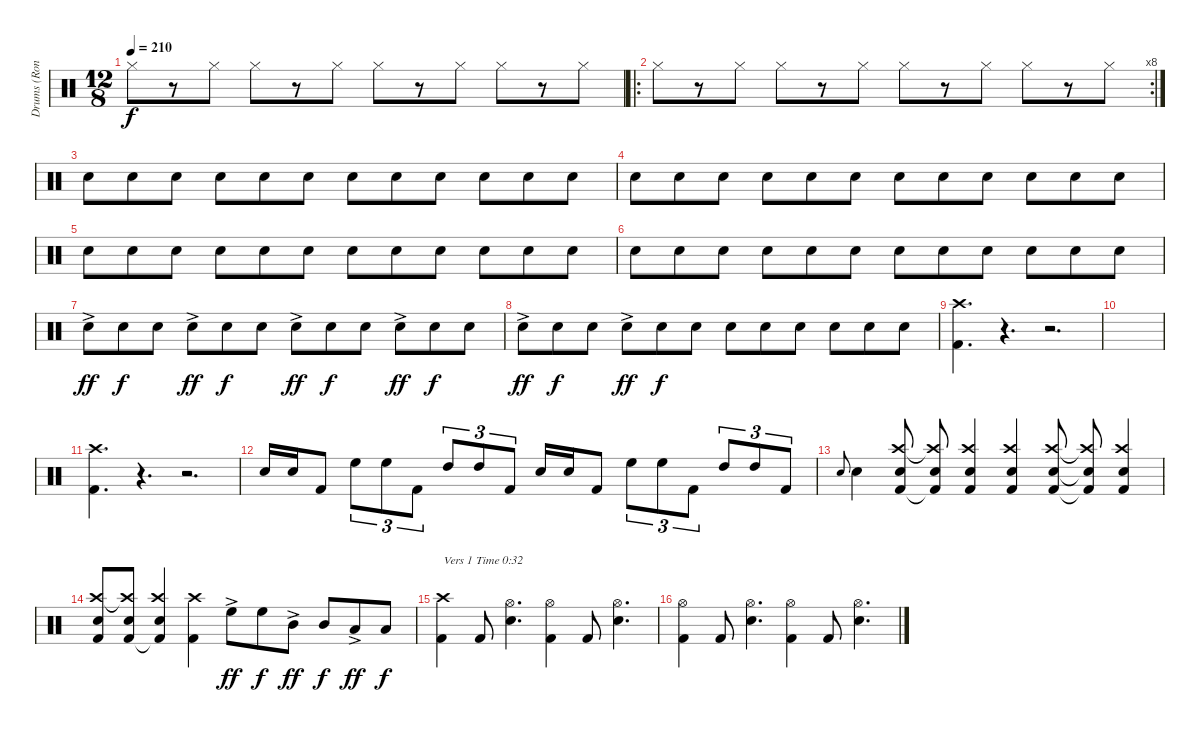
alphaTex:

\track ("Drums (Ronny)" "Drums (Ron") {instrument percussion}
\staff {score}
\articulation defaults
\ts (12 8)
\tempo 210
\clef neutral
\ks c "Hi-Hat (closed)".8{dy f}
r.8 "Hi-Hat (closed)".8 "Hi-Hat (closed)".8 r.8 "Hi-Hat (closed)".8 "Hi-Hat (closed)".8 r.8 "Hi-Hat (closed)".8 "Hi-Hat (closed)".8 r.8 "Hi-Hat (closed)".8 |
\ro
\rc 8 "Hi-Hat (closed)".8
r.8 "Hi-Hat (closed)".8 "Hi-Hat (closed)".8 r.8 "Hi-Hat (closed)".8 "Hi-Hat (closed)".8 r.8 "Hi-Hat (closed)".8 "Hi-Hat (closed)".8 r.8 "Hi-Hat (closed)".8 |
"Snare (hit) 2".8{volume 10} "Snare (hit) 2".8 "Snare (hit) 2".8 "Snare (hit) 2".8 "Snare (hit) 2".8 "Snare (hit) 2".8 "Snare (hit) 2".8 "Snare (hit) 2".8 "Snare (hit) 2".8 "Snare (hit) 2".8 "Snare (hit) 2".8 "Snare (hit) 2".8 |
"Snare (hit) 2".8 "Snare (hit) 2".8 "Snare (hit) 2".8 "Snare (hit) 2".8 "Snare (hit) 2".8 "Snare (hit) 2".8 "Snare (hit) 2".8 "Snare (hit) 2".8 "Snare (hit) 2".8 "Snare (hit) 2".8 "Snare (hit) 2".8 "Snare (hit) 2".8 |
"Snare (hit) 2".8 "Snare (hit) 2".8 "Snare (hit) 2".8 "Snare (hit) 2".8 "Snare (hit) 2".8 "Snare (hit) 2".8 "Snare (hit) 2".8 "Snare (hit) 2".8 "Snare (hit) 2".8 "Snare (hit) 2".8 "Snare (hit) 2".8 "Snare (hit) 2".8 |
"Snare (hit) 2".8 "Snare (hit) 2".8 "Snare (hit) 2".8 "Snare (hit) 2".8 "Snare (hit) 2".8 "Snare (hit) 2".8 "Snare (hit) 2".8 "Snare (hit) 2".8 "Snare (hit) 2".8 "Snare (hit) 2".8 "Snare (hit) 2".8 "Snare (hit) 2".8 |
"Snare (hit) 2"{ac}.8{dy ff} "Snare (hit) 2".8{dy f} "Snare (hit) 2".8 "Snare (hit) 2"{ac}.8{dy ff} "Snare (hit) 2".8{dy f} "Snare (hit) 2".8 "Snare (hit) 2"{ac}.8{dy ff} "Snare (hit) 2".8{dy f} "Snare (hit) 2".8 "Snare (hit) 2"{ac}.8{dy ff} "Snare (hit) 2".8{dy f} "Snare (hit) 2".8 |
"Snare (hit) 2"{ac}.8{dy ff} "Snare (hit) 2".8{dy f} "Snare (hit) 2".8 "Snare (hit) 2"{ac}.8{dy ff} "Snare (hit) 2".8{dy f} "Snare (hit) 2".8 "Snare (hit) 2".8 "Snare (hit) 2".8 "Snare (hit) 2".8 "Snare (hit) 2".8 "Snare (hit) 2".8 "Snare (hit) 2".8 |
("Crash high (hit)" "Kick (hit) 2").4{d} r.4{d} r.2{d} |
|
("Crash high (hit)" "Kick (hit) 2").4{d} r.4{d} r.2{d} |
"Snare (hit) 2".16 "Snare (hit) 2".16 "Kick (hit) 2".8 "High Floor Tom (hit)".8{tu (3 2)} "High Floor Tom (hit)".8{tu (3 2)} "Kick (hit) 2".8{tu (3 2)} "High Tom (hit)".8{tu (3 2)} "High Tom (hit)".8{tu (3 2)} "Kick (hit) 2".8{tu (3 2)} "Snare (hit) 2".16 "Snare (hit) 2".16 "Kick (hit) 2".8 "High Floor Tom (hit)".8{tu (3 2)} "High Floor Tom (hit)".8{tu (3 2)} "Kick (hit) 2".8{tu (3 2)} "High Tom (hit)".8{tu (3 2)} "High Tom (hit)".8{tu (3 2)} "Kick (hit) 2".8{tu (3 2)} |
"Snare (hit) 2".8{gr onbeat} "Snare (hit) 2".4 ("Crash high (hit)" "Snare (hit) 2" "Kick (hit) 2").8 ("Crash high (hit)"{t} "Snare (hit) 2" "Kick (hit) 2"{t}).8 ("Crash high (hit)" "Snare (hit) 2" "Kick (hit) 2").4 ("Crash high (hit)" "Snare (hit) 2" "Kick (hit) 2").4 ("Crash high (hit)" "Snare (hit) 2" "Kick (hit) 2").8 ("Crash high (hit)"{t} "Snare (hit) 2"{t} "Kick (hit) 2"{t}).8 ("Crash high (hit)" "Snare (hit) 2" "Kick (hit) 2").4 |
("Crash high (hit)" "Snare (hit) 2" "Kick (hit) 2").8 ("Crash high (hit)"{t} "Snare (hit) 2" "Kick (hit) 2").8 ("Crash high (hit)" "Snare (hit) 2" "Kick (hit) 2"{t}).4 ("Crash high (hit)" "Kick (hit) 2").4 "High Floor Tom (hit)"{ac}.8{dy ff} "High Floor Tom (hit)".8{dy f} "Mid Tom (hit)"{ac}.8{dy ff} "Mid Tom (hit)".8{dy f} "Low Tom (hit)"{ac}.8{dy ff} "Low Tom (hit)".8{dy f} |
("Crash high (hit)" "Kick (hit) 2").4{txt "Vers 1 Time 0:32"} "Kick (hit) 2".8 ("Hi-Hat (open)" "Snare (hit) 2").4{d} ("Hi-Hat (open)" "Kick (hit) 2").4 "Kick (hit) 2".8 ("Hi-Hat (open)" "Snare (hit) 2").4{d} |
("Hi-Hat (open)" "Kick (hit) 2").4 "Kick (hit) 2".8 ("Hi-Hat (open)" "Snare (hit) 2").4{d} ("Hi-Hat (open)" "Kick (hit) 2").4 "Kick (hit) 2".8 ("Hi-Hat (open)" "Snare (hit) 2").4{d}
